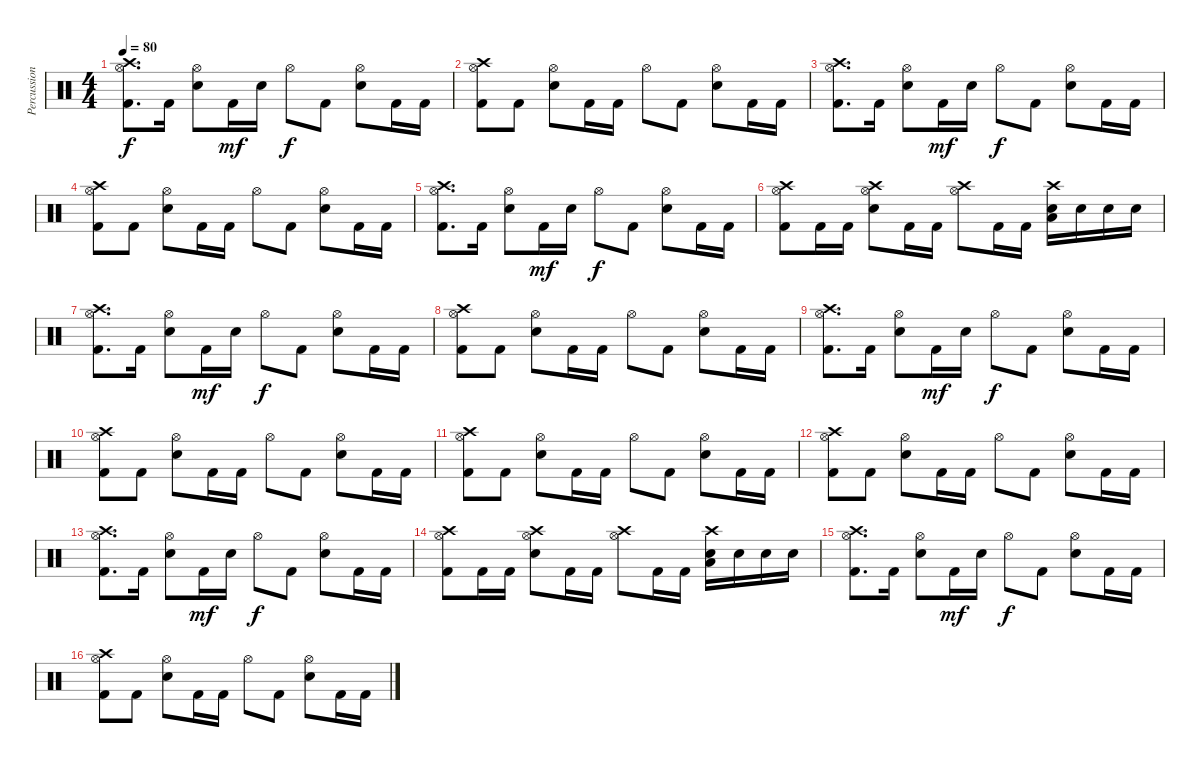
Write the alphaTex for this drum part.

\track ("Percussion" "Percussion") {instrument percussion}
\staff {score}
\articulation defaults
\ts (4 4)
\tempo 80
\clef neutral
\ks c
("Crash high (hit)" "Hi-Hat (open)" "Kick (hit) 2").8{d dy f} "Kick (hit) 2".16 ("Hi-Hat (open)" "Snare (hit) 2").8 "Kick (hit) 2".16{dy mf} "Snare (hit) 2".16 "Hi-Hat (open)".8{dy f} "Kick (hit) 2".8 ("Hi-Hat (open)" "Snare (hit) 2").8 "Kick (hit) 2".16 "Kick (hit) 2".16 |
("Crash high (hit)" "Hi-Hat (open)" "Kick (hit) 2").8 "Kick (hit) 2".8 ("Hi-Hat (open)" "Snare (hit) 2").8 "Kick (hit) 2".16 "Kick (hit) 2".16 "Hi-Hat (open)".8 "Kick (hit) 2".8 ("Hi-Hat (open)" "Snare (hit) 2").8 "Kick (hit) 2".16 "Kick (hit) 2".16 |
("Crash high (hit)" "Hi-Hat (open)" "Kick (hit) 2").8{d} "Kick (hit) 2".16 ("Hi-Hat (open)" "Snare (hit) 2").8 "Kick (hit) 2".16{dy mf} "Snare (hit) 2".16 "Hi-Hat (open)".8{dy f} "Kick (hit) 2".8 ("Hi-Hat (open)" "Snare (hit) 2").8 "Kick (hit) 2".16 "Kick (hit) 2".16 |
("Crash high (hit)" "Hi-Hat (open)" "Kick (hit) 2").8 "Kick (hit) 2".8 ("Hi-Hat (open)" "Snare (hit) 2").8 "Kick (hit) 2".16 "Kick (hit) 2".16 "Hi-Hat (open)".8 "Kick (hit) 2".8 ("Hi-Hat (open)" "Snare (hit) 2").8 "Kick (hit) 2".16 "Kick (hit) 2".16 |
("Crash high (hit)" "Hi-Hat (open)" "Kick (hit) 2").8{d} "Kick (hit) 2".16 ("Hi-Hat (open)" "Snare (hit) 2").8 "Kick (hit) 2".16{dy mf} "Snare (hit) 2".16 "Hi-Hat (open)".8{dy f} "Kick (hit) 2".8 ("Hi-Hat (open)" "Snare (hit) 2").8 "Kick (hit) 2".16 "Kick (hit) 2".16 |
("Crash high (hit)" "Hi-Hat (open)" "Kick (hit) 2").8 "Kick (hit) 2".16 "Kick (hit) 2".16 ("Crash high (hit)" "Hi-Hat (open)" "Snare (hit) 2").8 "Kick (hit) 2".16 "Kick (hit) 2".16 ("Crash high (hit)" "Hi-Hat (open)").8 "Kick (hit) 2".16 "Kick (hit) 2".16 ("Crash high (hit)" "Low Floor Tom (hit)" "Snare (hit) 2").16 "Snare (hit) 2".16 "Snare (hit) 2".16 "Snare (hit) 2".16 |
("Crash high (hit)" "Hi-Hat (open)" "Kick (hit) 2").8{d} "Kick (hit) 2".16 ("Hi-Hat (open)" "Snare (hit) 2").8 "Kick (hit) 2".16{dy mf} "Snare (hit) 2".16 "Hi-Hat (open)".8{dy f} "Kick (hit) 2".8 ("Hi-Hat (open)" "Snare (hit) 2").8 "Kick (hit) 2".16 "Kick (hit) 2".16 |
("Crash high (hit)" "Hi-Hat (open)" "Kick (hit) 2").8 "Kick (hit) 2".8 ("Hi-Hat (open)" "Snare (hit) 2").8 "Kick (hit) 2".16 "Kick (hit) 2".16 "Hi-Hat (open)".8 "Kick (hit) 2".8 ("Hi-Hat (open)" "Snare (hit) 2").8 "Kick (hit) 2".16 "Kick (hit) 2".16 |
("Crash high (hit)" "Hi-Hat (open)" "Kick (hit) 2").8{d} "Kick (hit) 2".16 ("Hi-Hat (open)" "Snare (hit) 2").8 "Kick (hit) 2".16{dy mf} "Snare (hit) 2".16 "Hi-Hat (open)".8{dy f} "Kick (hit) 2".8 ("Hi-Hat (open)" "Snare (hit) 2").8 "Kick (hit) 2".16 "Kick (hit) 2".16 |
("Crash high (hit)" "Hi-Hat (open)" "Kick (hit) 2").8 "Kick (hit) 2".8 ("Hi-Hat (open)" "Snare (hit) 2").8 "Kick (hit) 2".16 "Kick (hit) 2".16 "Hi-Hat (open)".8 "Kick (hit) 2".8 ("Hi-Hat (open)" "Snare (hit) 2").8 "Kick (hit) 2".16 "Kick (hit) 2".16 |
("Crash high (hit)" "Hi-Hat (open)" "Kick (hit) 2").8 "Kick (hit) 2".8 ("Hi-Hat (open)" "Snare (hit) 2").8 "Kick (hit) 2".16 "Kick (hit) 2".16 "Hi-Hat (open)".8 "Kick (hit) 2".8 ("Hi-Hat (open)" "Snare (hit) 2").8 "Kick (hit) 2".16 "Kick (hit) 2".16 |
("Crash high (hit)" "Hi-Hat (open)" "Kick (hit) 2").8 "Kick (hit) 2".8 ("Hi-Hat (open)" "Snare (hit) 2").8 "Kick (hit) 2".16 "Kick (hit) 2".16 "Hi-Hat (open)".8 "Kick (hit) 2".8 ("Hi-Hat (open)" "Snare (hit) 2").8 "Kick (hit) 2".16 "Kick (hit) 2".16 |
("Crash high (hit)" "Hi-Hat (open)" "Kick (hit) 2").8{d} "Kick (hit) 2".16 ("Hi-Hat (open)" "Snare (hit) 2").8 "Kick (hit) 2".16{dy mf} "Snare (hit) 2".16 "Hi-Hat (open)".8{dy f} "Kick (hit) 2".8 ("Hi-Hat (open)" "Snare (hit) 2").8 "Kick (hit) 2".16 "Kick (hit) 2".16 |
("Crash high (hit)" "Hi-Hat (open)" "Kick (hit) 2").8 "Kick (hit) 2".16 "Kick (hit) 2".16 ("Crash high (hit)" "Hi-Hat (open)" "Snare (hit) 2").8 "Kick (hit) 2".16 "Kick (hit) 2".16 ("Crash high (hit)" "Hi-Hat (open)").8 "Kick (hit) 2".16 "Kick (hit) 2".16 ("Crash high (hit)" "Low Floor Tom (hit)" "Snare (hit) 2").16 "Snare (hit) 2".16 "Snare (hit) 2".16 "Snare (hit) 2".16 |
("Crash high (hit)" "Hi-Hat (open)" "Kick (hit) 2").8{d} "Kick (hit) 2".16 ("Hi-Hat (open)" "Snare (hit) 2").8 "Kick (hit) 2".16{dy mf} "Snare (hit) 2".16 "Hi-Hat (open)".8{dy f} "Kick (hit) 2".8 ("Hi-Hat (open)" "Snare (hit) 2").8 "Kick (hit) 2".16 "Kick (hit) 2".16 |
("Crash high (hit)" "Hi-Hat (open)" "Kick (hit) 2").8 "Kick (hit) 2".8 ("Hi-Hat (open)" "Snare (hit) 2").8 "Kick (hit) 2".16 "Kick (hit) 2".16 "Hi-Hat (open)".8 "Kick (hit) 2".8 ("Hi-Hat (open)" "Snare (hit) 2").8 "Kick (hit) 2".16 "Kick (hit) 2".16
